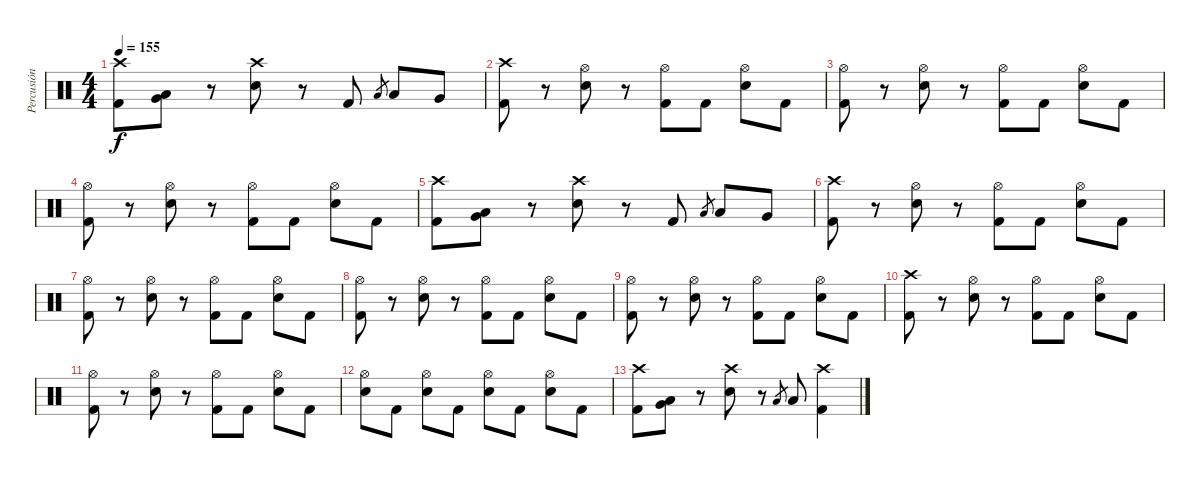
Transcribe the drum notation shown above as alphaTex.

\track ("Percusión" "Percusión") {instrument percussion}
\staff {score}
\articulation defaults
\ts (4 4)
\tempo 155
\clef neutral
\ks c
("Crash high (hit)" "Kick (hit) 2").8{dy f} ("Very Low Tom (hit)" "Low Tom (hit)").8 r.8 ("Crash high (hit)" "Electric Snare (hit)").8 r.8 "Kick (hit) 2".8 "Low Tom (hit)".8{gr} "Low Tom (hit)".8 "Very Low Tom (hit)".8 |
("Crash high (hit)" "Kick (hit) 2").8 r.8 ("Hi-Hat (open)" "Electric Snare (hit)").8 r.8 ("Hi-Hat (open)" "Kick (hit) 2").8 "Kick (hit) 2".8 ("Hi-Hat (open)" "Electric Snare (hit)").8 "Kick (hit) 2".8 |
("Hi-Hat (open)" "Kick (hit) 2").8 r.8 ("Hi-Hat (open)" "Electric Snare (hit)").8 r.8 ("Hi-Hat (open)" "Kick (hit) 2").8 "Kick (hit) 2".8 ("Hi-Hat (open)" "Electric Snare (hit)").8 "Kick (hit) 2".8 |
("Hi-Hat (open)" "Kick (hit) 2").8 r.8 ("Hi-Hat (open)" "Electric Snare (hit)").8 r.8 ("Hi-Hat (open)" "Kick (hit) 2").8 "Kick (hit) 2".8 ("Hi-Hat (open)" "Electric Snare (hit)").8 "Kick (hit) 2".8 |
("Crash high (hit)" "Kick (hit) 2").8 ("Very Low Tom (hit)" "Low Tom (hit)").8 r.8 ("Crash high (hit)" "Electric Snare (hit)").8 r.8 "Kick (hit) 2".8 "Low Tom (hit)".8{gr} "Low Tom (hit)".8 "Very Low Tom (hit)".8 |
("Crash high (hit)" "Kick (hit) 2").8 r.8 ("Hi-Hat (open)" "Electric Snare (hit)").8 r.8 ("Hi-Hat (open)" "Kick (hit) 2").8 "Kick (hit) 2".8 ("Hi-Hat (open)" "Electric Snare (hit)").8 "Kick (hit) 2".8 |
("Hi-Hat (open)" "Kick (hit) 2").8 r.8 ("Hi-Hat (open)" "Electric Snare (hit)").8 r.8 ("Hi-Hat (open)" "Kick (hit) 2").8 "Kick (hit) 2".8 ("Hi-Hat (open)" "Electric Snare (hit)").8 "Kick (hit) 2".8 |
("Hi-Hat (open)" "Kick (hit) 2").8 r.8 ("Hi-Hat (open)" "Electric Snare (hit)").8 r.8 ("Hi-Hat (open)" "Kick (hit) 2").8 "Kick (hit) 2".8 ("Hi-Hat (open)" "Electric Snare (hit)").8 "Kick (hit) 2".8 |
("Hi-Hat (open)" "Kick (hit) 2").8 r.8 ("Hi-Hat (open)" "Electric Snare (hit)").8 r.8 ("Hi-Hat (open)" "Kick (hit) 2").8 "Kick (hit) 2".8 ("Hi-Hat (open)" "Electric Snare (hit)").8 "Kick (hit) 2".8 |
("Crash high (hit)" "Kick (hit) 2").8 r.8 ("Hi-Hat (open)" "Electric Snare (hit)").8 r.8 ("Hi-Hat (open)" "Kick (hit) 2").8 "Kick (hit) 2".8 ("Hi-Hat (open)" "Electric Snare (hit)").8 "Kick (hit) 2".8 |
("Hi-Hat (open)" "Kick (hit) 2").8 r.8 ("Hi-Hat (open)" "Electric Snare (hit)").8 r.8 ("Hi-Hat (open)" "Kick (hit) 2").8 "Kick (hit) 2".8 ("Hi-Hat (open)" "Electric Snare (hit)").8 "Kick (hit) 2".8 |
("Hi-Hat (open)" "Electric Snare (hit)").8 "Kick (hit) 2".8 ("Hi-Hat (open)" "Electric Snare (hit)").8 "Kick (hit) 2".8 ("Hi-Hat (open)" "Electric Snare (hit)").8 "Kick (hit) 2".8 ("Hi-Hat (open)" "Electric Snare (hit)").8 "Kick (hit) 2".8 |
("Crash high (hit)" "Kick (hit) 2").8 ("Very Low Tom (hit)" "Low Tom (hit)").8 r.8 ("Crash high (hit)" "Electric Snare (hit)").8 r.8 "Low Tom (hit)".8{gr} "Low Tom (hit)".8 ("Crash high (hit)" "Kick (hit) 2").4
